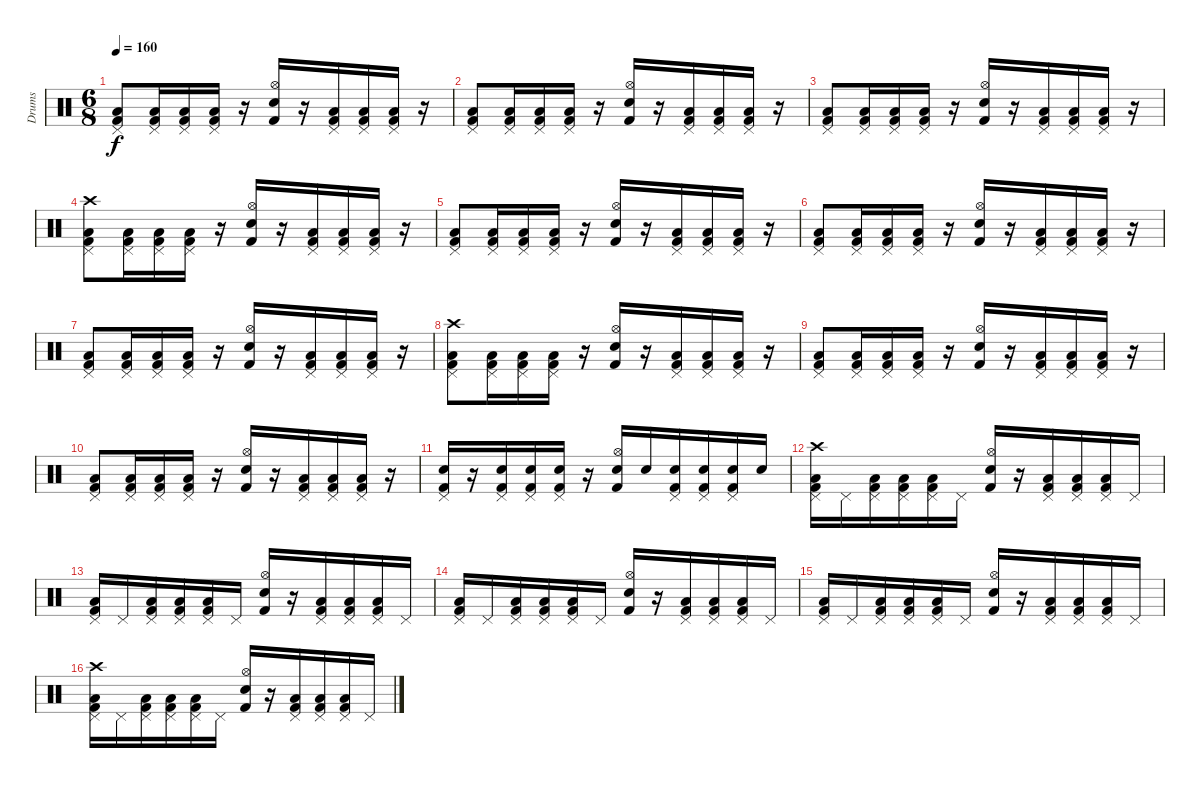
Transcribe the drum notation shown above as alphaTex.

\track ("Drums" "Drums") {instrument percussion}
\staff {score}
\articulation defaults
\ts (6 8)
\tempo 160
\clef neutral
\ks c
("Pedal Hi-Hat (hit)" "Low Floor Tom (hit)" "Kick (hit) 2").8{dy f} ("Pedal Hi-Hat (hit)" "Low Floor Tom (hit)" "Kick (hit) 2").16 ("Pedal Hi-Hat (hit)" "Low Floor Tom (hit)" "Kick (hit) 2").16 ("Pedal Hi-Hat (hit)" "Low Floor Tom (hit)" "Kick (hit) 2").16 r.16 ("Hi-Hat (open)" "Snare (hit) 2" "Kick (hit) 2").16 r.16 ("Pedal Hi-Hat (hit)" "Low Floor Tom (hit)" "Kick (hit) 2").16 ("Pedal Hi-Hat (hit)" "Low Floor Tom (hit)" "Kick (hit) 2").16 ("Pedal Hi-Hat (hit)" "Low Floor Tom (hit)" "Kick (hit) 2").16 r.16 |
("Pedal Hi-Hat (hit)" "Low Floor Tom (hit)" "Kick (hit) 2").8 ("Pedal Hi-Hat (hit)" "Low Floor Tom (hit)" "Kick (hit) 2").16 ("Pedal Hi-Hat (hit)" "Low Floor Tom (hit)" "Kick (hit) 2").16 ("Pedal Hi-Hat (hit)" "Low Floor Tom (hit)" "Kick (hit) 2").16 r.16 ("Hi-Hat (open)" "Snare (hit) 2" "Kick (hit) 2").16 r.16 ("Pedal Hi-Hat (hit)" "Low Floor Tom (hit)" "Kick (hit) 2").16 ("Pedal Hi-Hat (hit)" "Low Floor Tom (hit)" "Kick (hit) 2").16 ("Pedal Hi-Hat (hit)" "Low Floor Tom (hit)" "Kick (hit) 2").16 r.16 |
("Pedal Hi-Hat (hit)" "Low Floor Tom (hit)" "Kick (hit) 2").8 ("Pedal Hi-Hat (hit)" "Low Floor Tom (hit)" "Kick (hit) 2").16 ("Pedal Hi-Hat (hit)" "Low Floor Tom (hit)" "Kick (hit) 2").16 ("Pedal Hi-Hat (hit)" "Low Floor Tom (hit)" "Kick (hit) 2").16 r.16 ("Hi-Hat (open)" "Snare (hit) 2" "Kick (hit) 2").16 r.16 ("Pedal Hi-Hat (hit)" "Low Floor Tom (hit)" "Kick (hit) 2").16 ("Pedal Hi-Hat (hit)" "Low Floor Tom (hit)" "Kick (hit) 2").16 ("Pedal Hi-Hat (hit)" "Low Floor Tom (hit)" "Kick (hit) 2").16 r.16 |
("Crash high (hit)" "Pedal Hi-Hat (hit)" "Low Floor Tom (hit)" "Kick (hit) 2").8 ("Pedal Hi-Hat (hit)" "Low Floor Tom (hit)" "Kick (hit) 2").16 ("Pedal Hi-Hat (hit)" "Low Floor Tom (hit)" "Kick (hit) 2").16 ("Pedal Hi-Hat (hit)" "Low Floor Tom (hit)" "Kick (hit) 2").16 r.16 ("Hi-Hat (open)" "Snare (hit) 2" "Kick (hit) 2").16 r.16 ("Pedal Hi-Hat (hit)" "Low Floor Tom (hit)" "Kick (hit) 2").16 ("Pedal Hi-Hat (hit)" "Low Floor Tom (hit)" "Kick (hit) 2").16 ("Pedal Hi-Hat (hit)" "Low Floor Tom (hit)" "Kick (hit) 2").16 r.16 |
("Pedal Hi-Hat (hit)" "Low Floor Tom (hit)" "Kick (hit) 2").8 ("Pedal Hi-Hat (hit)" "Low Floor Tom (hit)" "Kick (hit) 2").16 ("Pedal Hi-Hat (hit)" "Low Floor Tom (hit)" "Kick (hit) 2").16 ("Pedal Hi-Hat (hit)" "Low Floor Tom (hit)" "Kick (hit) 2").16 r.16 ("Hi-Hat (open)" "Snare (hit) 2" "Kick (hit) 2").16 r.16 ("Pedal Hi-Hat (hit)" "Low Floor Tom (hit)" "Kick (hit) 2").16 ("Pedal Hi-Hat (hit)" "Low Floor Tom (hit)" "Kick (hit) 2").16 ("Pedal Hi-Hat (hit)" "Low Floor Tom (hit)" "Kick (hit) 2").16 r.16 |
("Pedal Hi-Hat (hit)" "Low Floor Tom (hit)" "Kick (hit) 2").8 ("Pedal Hi-Hat (hit)" "Low Floor Tom (hit)" "Kick (hit) 2").16 ("Pedal Hi-Hat (hit)" "Low Floor Tom (hit)" "Kick (hit) 2").16 ("Pedal Hi-Hat (hit)" "Low Floor Tom (hit)" "Kick (hit) 2").16 r.16 ("Hi-Hat (open)" "Snare (hit) 2" "Kick (hit) 2").16 r.16 ("Pedal Hi-Hat (hit)" "Low Floor Tom (hit)" "Kick (hit) 2").16 ("Pedal Hi-Hat (hit)" "Low Floor Tom (hit)" "Kick (hit) 2").16 ("Pedal Hi-Hat (hit)" "Low Floor Tom (hit)" "Kick (hit) 2").16 r.16 |
("Pedal Hi-Hat (hit)" "Low Floor Tom (hit)" "Kick (hit) 2").8 ("Pedal Hi-Hat (hit)" "Low Floor Tom (hit)" "Kick (hit) 2").16 ("Pedal Hi-Hat (hit)" "Low Floor Tom (hit)" "Kick (hit) 2").16 ("Pedal Hi-Hat (hit)" "Low Floor Tom (hit)" "Kick (hit) 2").16 r.16 ("Hi-Hat (open)" "Snare (hit) 2" "Kick (hit) 2").16 r.16 ("Pedal Hi-Hat (hit)" "Low Floor Tom (hit)" "Kick (hit) 2").16 ("Pedal Hi-Hat (hit)" "Low Floor Tom (hit)" "Kick (hit) 2").16 ("Pedal Hi-Hat (hit)" "Low Floor Tom (hit)" "Kick (hit) 2").16 r.16 |
("Crash high (hit)" "Pedal Hi-Hat (hit)" "Low Floor Tom (hit)" "Kick (hit) 2").8 ("Pedal Hi-Hat (hit)" "Low Floor Tom (hit)" "Kick (hit) 2").16 ("Pedal Hi-Hat (hit)" "Low Floor Tom (hit)" "Kick (hit) 2").16 ("Pedal Hi-Hat (hit)" "Low Floor Tom (hit)" "Kick (hit) 2").16 r.16 ("Hi-Hat (open)" "Snare (hit) 2" "Kick (hit) 2").16 r.16 ("Pedal Hi-Hat (hit)" "Low Floor Tom (hit)" "Kick (hit) 2").16 ("Pedal Hi-Hat (hit)" "Low Floor Tom (hit)" "Kick (hit) 2").16 ("Pedal Hi-Hat (hit)" "Low Floor Tom (hit)" "Kick (hit) 2").16 r.16 |
("Pedal Hi-Hat (hit)" "Low Floor Tom (hit)" "Kick (hit) 2").8 ("Pedal Hi-Hat (hit)" "Low Floor Tom (hit)" "Kick (hit) 2").16 ("Pedal Hi-Hat (hit)" "Low Floor Tom (hit)" "Kick (hit) 2").16 ("Pedal Hi-Hat (hit)" "Low Floor Tom (hit)" "Kick (hit) 2").16 r.16 ("Hi-Hat (open)" "Snare (hit) 2" "Kick (hit) 2").16 r.16 ("Pedal Hi-Hat (hit)" "Low Floor Tom (hit)" "Kick (hit) 2").16 ("Pedal Hi-Hat (hit)" "Low Floor Tom (hit)" "Kick (hit) 2").16 ("Pedal Hi-Hat (hit)" "Low Floor Tom (hit)" "Kick (hit) 2").16 r.16 |
("Pedal Hi-Hat (hit)" "Low Floor Tom (hit)" "Kick (hit) 2").8 ("Pedal Hi-Hat (hit)" "Low Floor Tom (hit)" "Kick (hit) 2").16 ("Pedal Hi-Hat (hit)" "Low Floor Tom (hit)" "Kick (hit) 2").16 ("Pedal Hi-Hat (hit)" "Low Floor Tom (hit)" "Kick (hit) 2").16 r.16 ("Hi-Hat (open)" "Snare (hit) 2" "Kick (hit) 2").16 r.16 ("Pedal Hi-Hat (hit)" "Low Floor Tom (hit)" "Kick (hit) 2").16 ("Pedal Hi-Hat (hit)" "Low Floor Tom (hit)" "Kick (hit) 2").16 ("Pedal Hi-Hat (hit)" "Low Floor Tom (hit)" "Kick (hit) 2").16 r.16 |
("Pedal Hi-Hat (hit)" "Electric Snare (hit)" "Kick (hit) 2").16 r.16 ("Pedal Hi-Hat (hit)" "Electric Snare (hit)" "Kick (hit) 2").16 ("Pedal Hi-Hat (hit)" "Electric Snare (hit)" "Kick (hit) 2").16 ("Pedal Hi-Hat (hit)" "Electric Snare (hit)" "Kick (hit) 2").16 r.16 ("Hi-Hat (open)" "Electric Snare (hit)" "Kick (hit) 2").16 "Electric Snare (hit)".16 ("Pedal Hi-Hat (hit)" "Electric Snare (hit)" "Kick (hit) 2").16 ("Pedal Hi-Hat (hit)" "Electric Snare (hit)" "Kick (hit) 2").16 ("Pedal Hi-Hat (hit)" "Electric Snare (hit)" "Kick (hit) 2").16 "Electric Snare (hit)".16 |
("Crash high (hit)" "Pedal Hi-Hat (hit)" "Low Floor Tom (hit)" "Kick (hit) 2").16 "Pedal Hi-Hat (hit)".16 ("Pedal Hi-Hat (hit)" "Low Floor Tom (hit)" "Kick (hit) 2").16 ("Pedal Hi-Hat (hit)" "Low Floor Tom (hit)" "Kick (hit) 2").16 ("Pedal Hi-Hat (hit)" "Low Floor Tom (hit)" "Kick (hit) 2").16 "Pedal Hi-Hat (hit)".16 ("Hi-Hat (open)" "Snare (hit) 2" "Kick (hit) 2").16 r.16 ("Pedal Hi-Hat (hit)" "Low Floor Tom (hit)" "Kick (hit) 2").16 ("Pedal Hi-Hat (hit)" "Low Floor Tom (hit)" "Kick (hit) 2").16 ("Pedal Hi-Hat (hit)" "Low Floor Tom (hit)" "Kick (hit) 2").16 "Pedal Hi-Hat (hit)".16 |
("Pedal Hi-Hat (hit)" "Low Floor Tom (hit)" "Kick (hit) 2").16 "Pedal Hi-Hat (hit)".16 ("Pedal Hi-Hat (hit)" "Low Floor Tom (hit)" "Kick (hit) 2").16 ("Pedal Hi-Hat (hit)" "Low Floor Tom (hit)" "Kick (hit) 2").16 ("Pedal Hi-Hat (hit)" "Low Floor Tom (hit)" "Kick (hit) 2").16 "Pedal Hi-Hat (hit)".16 ("Hi-Hat (open)" "Snare (hit) 2" "Kick (hit) 2").16 r.16 ("Pedal Hi-Hat (hit)" "Low Floor Tom (hit)" "Kick (hit) 2").16 ("Pedal Hi-Hat (hit)" "Low Floor Tom (hit)" "Kick (hit) 2").16 ("Pedal Hi-Hat (hit)" "Low Floor Tom (hit)" "Kick (hit) 2").16 "Pedal Hi-Hat (hit)".16 |
("Pedal Hi-Hat (hit)" "Low Floor Tom (hit)" "Kick (hit) 2").16 "Pedal Hi-Hat (hit)".16 ("Pedal Hi-Hat (hit)" "Low Floor Tom (hit)" "Kick (hit) 2").16 ("Pedal Hi-Hat (hit)" "Low Floor Tom (hit)" "Kick (hit) 2").16 ("Pedal Hi-Hat (hit)" "Low Floor Tom (hit)" "Kick (hit) 2").16 "Pedal Hi-Hat (hit)".16 ("Hi-Hat (open)" "Snare (hit) 2" "Kick (hit) 2").16 r.16 ("Pedal Hi-Hat (hit)" "Low Floor Tom (hit)" "Kick (hit) 2").16 ("Pedal Hi-Hat (hit)" "Low Floor Tom (hit)" "Kick (hit) 2").16 ("Pedal Hi-Hat (hit)" "Low Floor Tom (hit)" "Kick (hit) 2").16 "Pedal Hi-Hat (hit)".16 |
("Pedal Hi-Hat (hit)" "Low Floor Tom (hit)" "Kick (hit) 2").16 "Pedal Hi-Hat (hit)".16 ("Pedal Hi-Hat (hit)" "Low Floor Tom (hit)" "Kick (hit) 2").16 ("Pedal Hi-Hat (hit)" "Low Floor Tom (hit)" "Kick (hit) 2").16 ("Pedal Hi-Hat (hit)" "Low Floor Tom (hit)" "Kick (hit) 2").16 "Pedal Hi-Hat (hit)".16 ("Hi-Hat (open)" "Snare (hit) 2" "Kick (hit) 2").16 r.16 ("Pedal Hi-Hat (hit)" "Low Floor Tom (hit)" "Kick (hit) 2").16 ("Pedal Hi-Hat (hit)" "Low Floor Tom (hit)" "Kick (hit) 2").16 ("Pedal Hi-Hat (hit)" "Low Floor Tom (hit)" "Kick (hit) 2").16 "Pedal Hi-Hat (hit)".16 |
("Crash high (hit)" "Pedal Hi-Hat (hit)" "Low Floor Tom (hit)" "Kick (hit) 2").16 "Pedal Hi-Hat (hit)".16 ("Pedal Hi-Hat (hit)" "Low Floor Tom (hit)" "Kick (hit) 2").16 ("Pedal Hi-Hat (hit)" "Low Floor Tom (hit)" "Kick (hit) 2").16 ("Pedal Hi-Hat (hit)" "Low Floor Tom (hit)" "Kick (hit) 2").16 "Pedal Hi-Hat (hit)".16 ("Hi-Hat (open)" "Snare (hit) 2" "Kick (hit) 2").16 r.16 ("Pedal Hi-Hat (hit)" "Low Floor Tom (hit)" "Kick (hit) 2").16 ("Pedal Hi-Hat (hit)" "Low Floor Tom (hit)" "Kick (hit) 2").16 ("Pedal Hi-Hat (hit)" "Low Floor Tom (hit)" "Kick (hit) 2").16 "Pedal Hi-Hat (hit)".16
